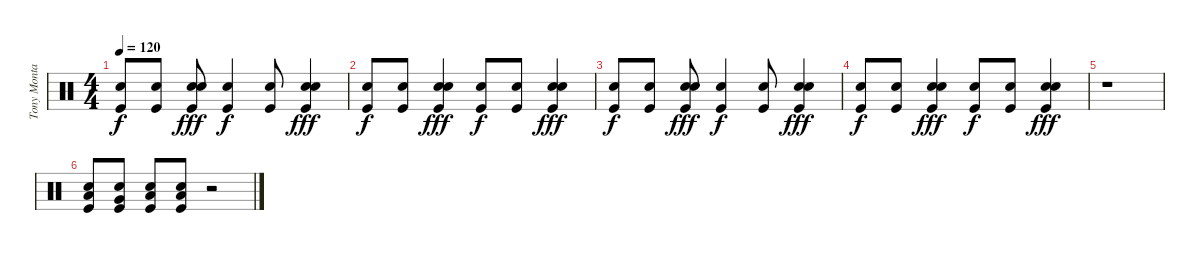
\track ("Tony Montana" "Tony Monta") {instrument percussion}
\staff {score}
\articulation defaults
\ts (4 4)
\tempo 120
\clef neutral
\ks c
("Kick (hit)" "Snare (hit) 2").8{dy f} ("Kick (hit)" "Snare (hit) 2").8 ("Kick (hit)" "Snare (hit) 2" "Snare (hit) 2").8{dy fff} ("Kick (hit)" "Snare (hit) 2").4{dy f} ("Kick (hit)" "Snare (hit) 2").8 ("Kick (hit)" "Snare (hit) 2" "Snare (hit) 2").4{dy fff} |
("Kick (hit)" "Snare (hit) 2").8{dy f} ("Kick (hit)" "Snare (hit) 2").8 ("Kick (hit)" "Snare (hit) 2" "Snare (hit) 2").4{dy fff} ("Kick (hit)" "Snare (hit) 2").8{dy f} ("Kick (hit)" "Snare (hit) 2").8 ("Kick (hit)" "Snare (hit) 2" "Snare (hit) 2").4{dy fff} |
("Kick (hit)" "Snare (hit) 2").8{dy f} ("Kick (hit)" "Snare (hit) 2").8 ("Kick (hit)" "Snare (hit) 2" "Snare (hit) 2").8{dy fff} ("Kick (hit)" "Snare (hit) 2").4{dy f} ("Kick (hit)" "Snare (hit) 2").8 ("Kick (hit)" "Snare (hit) 2" "Snare (hit) 2").4{dy fff} |
("Kick (hit)" "Snare (hit) 2").8{dy f} ("Kick (hit)" "Snare (hit) 2").8 ("Kick (hit)" "Snare (hit) 2" "Snare (hit) 2").4{dy fff} ("Kick (hit)" "Snare (hit) 2").8{dy f} ("Kick (hit)" "Snare (hit) 2").8 ("Kick (hit)" "Snare (hit) 2" "Snare (hit) 2").4{dy fff} |
r.1 |
("Kick (hit)" "Snare (hit) 2" "Low Tom (hit)").8 ("Kick (hit)" "Snare (hit) 2" "Very Low Tom (hit)").8 ("Kick (hit)" "Snare (hit) 2" "Low Floor Tom (hit)").8 ("Kick (hit)" "Snare (hit) 2" "Low Tom (hit)").8 r.2
